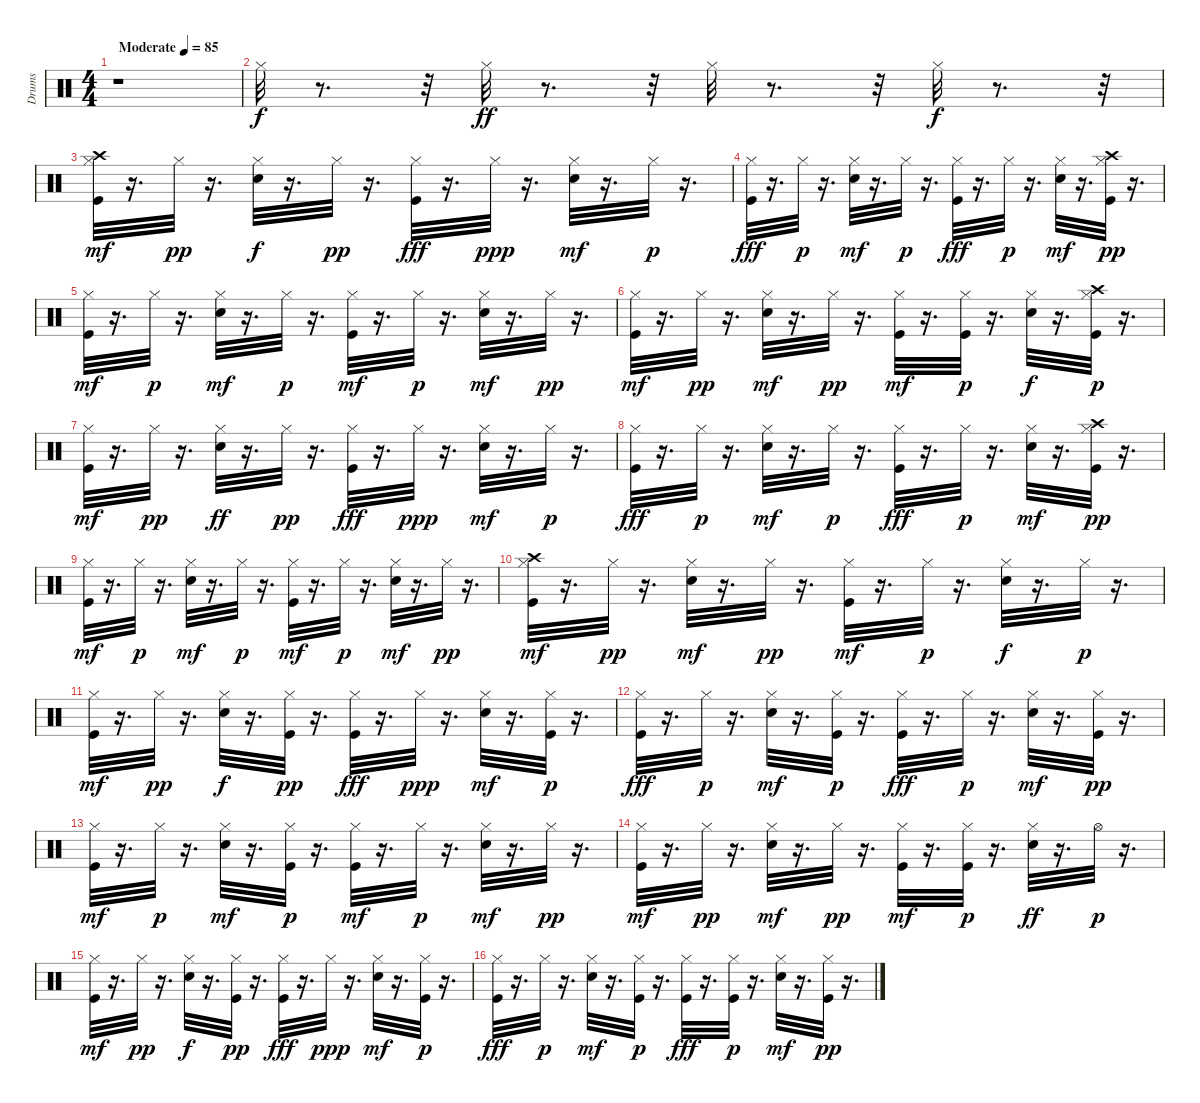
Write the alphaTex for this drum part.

\track ("Drums" "Drums") {instrument percussion}
\staff {score}
\articulation defaults
\ts (4 4)
\tempo (85 "Moderate")
\clef neutral
\ks c
r.1{dy f} |
"Hi-Hat (closed)".32 r.8{d} r.32 "Hi-Hat (closed)".32{dy ff} r.8{d} r.32 "Hi-Hat (closed)".32 r.8{d} r.32 "Hi-Hat (closed)".32{dy f} r.8{d} r.32 |
("Kick (hit)" "Crash high (hit)" "Hi-Hat (closed)").32{dy mf} r.16{d} "Hi-Hat (closed)".32{dy pp} r.16{d} ("Electric Snare (hit)" "Hi-Hat (closed)").32{dy f} r.16{d} "Hi-Hat (closed)".32{dy pp} r.16{d} ("Kick (hit)" "Hi-Hat (closed)").32{dy fff} r.16{d} "Hi-Hat (closed)".32{dy ppp} r.16{d} ("Electric Snare (hit)" "Hi-Hat (closed)").32{dy mf} r.16{d} "Hi-Hat (closed)".32{dy p} r.16{d} |
("Kick (hit)" "Hi-Hat (closed)").32{dy fff} r.16{d} "Hi-Hat (closed)".32{dy p} r.16{d} ("Electric Snare (hit)" "Hi-Hat (closed)").32{dy mf} r.16{d} "Hi-Hat (closed)".32{dy p} r.16{d} ("Kick (hit)" "Hi-Hat (closed)").32{dy fff} r.16{d} "Hi-Hat (closed)".32{dy p} r.16{d} ("Electric Snare (hit)" "Hi-Hat (closed)").32{dy mf} r.16{d} ("Kick (hit)" "Crash high (hit)" "Hi-Hat (closed)").32{dy pp} r.16{d} |
("Kick (hit)" "Hi-Hat (closed)").32{dy mf} r.16{d} "Hi-Hat (closed)".32{dy p} r.16{d} ("Electric Snare (hit)" "Hi-Hat (closed)").32{dy mf} r.16{d} "Hi-Hat (closed)".32{dy p} r.16{d} ("Kick (hit)" "Hi-Hat (closed)").32{dy mf} r.16{d} "Hi-Hat (closed)".32{dy p} r.16{d} ("Electric Snare (hit)" "Hi-Hat (closed)").32{dy mf} r.16{d} "Hi-Hat (closed)".32{dy pp} r.16{d} |
("Kick (hit)" "Hi-Hat (closed)").32{dy mf} r.16{d} "Hi-Hat (closed)".32{dy pp} r.16{d} ("Electric Snare (hit)" "Hi-Hat (closed)").32{dy mf} r.16{d} "Hi-Hat (closed)".32{dy pp} r.16{d} ("Kick (hit)" "Hi-Hat (closed)").32{dy mf} r.16{d} ("Kick (hit)" "Hi-Hat (closed)").32{dy p} r.16{d} ("Electric Snare (hit)" "Hi-Hat (closed)").32{dy f} r.16{d} ("Kick (hit)" "Crash high (hit)" "Hi-Hat (closed)").32{dy p} r.16{d} |
("Kick (hit)" "Hi-Hat (closed)").32{dy mf} r.16{d} "Hi-Hat (closed)".32{dy pp} r.16{d} ("Electric Snare (hit)" "Hi-Hat (closed)").32{dy ff} r.16{d} "Hi-Hat (closed)".32{dy pp} r.16{d} ("Kick (hit)" "Hi-Hat (closed)").32{dy fff} r.16{d} "Hi-Hat (closed)".32{dy ppp} r.16{d} ("Electric Snare (hit)" "Hi-Hat (closed)").32{dy mf} r.16{d} "Hi-Hat (closed)".32{dy p} r.16{d} |
("Kick (hit)" "Hi-Hat (closed)").32{dy fff} r.16{d} "Hi-Hat (closed)".32{dy p} r.16{d} ("Electric Snare (hit)" "Hi-Hat (closed)").32{dy mf} r.16{d} "Hi-Hat (closed)".32{dy p} r.16{d} ("Kick (hit)" "Hi-Hat (closed)").32{dy fff} r.16{d} "Hi-Hat (closed)".32{dy p} r.16{d} ("Electric Snare (hit)" "Hi-Hat (closed)").32{dy mf} r.16{d} ("Kick (hit)" "Crash high (hit)" "Hi-Hat (closed)").32{dy pp} r.16{d} |
("Kick (hit)" "Hi-Hat (closed)").32{dy mf} r.16{d} "Hi-Hat (closed)".32{dy p} r.16{d} ("Electric Snare (hit)" "Hi-Hat (closed)").32{dy mf} r.16{d} "Hi-Hat (closed)".32{dy p} r.16{d} ("Kick (hit)" "Hi-Hat (closed)").32{dy mf} r.16{d} "Hi-Hat (closed)".32{dy p} r.16{d} ("Electric Snare (hit)" "Hi-Hat (closed)").32{dy mf} r.16{d} "Hi-Hat (closed)".32{dy pp} r.16{d} |
("Kick (hit)" "Crash high (hit)" "Hi-Hat (closed)").32{dy mf} r.16{d} "Hi-Hat (closed)".32{dy pp} r.16{d} ("Electric Snare (hit)" "Hi-Hat (closed)").32{dy mf} r.16{d} "Hi-Hat (closed)".32{dy pp} r.16{d} ("Kick (hit)" "Hi-Hat (closed)").32{dy mf} r.16{d} "Hi-Hat (closed)".32{dy p} r.16{d} ("Electric Snare (hit)" "Hi-Hat (closed)").32{dy f} r.16{d} "Hi-Hat (closed)".32{dy p} r.16{d} |
("Kick (hit)" "Hi-Hat (closed)").32{dy mf} r.16{d} "Hi-Hat (closed)".32{dy pp} r.16{d} ("Electric Snare (hit)" "Hi-Hat (closed)").32{dy f} r.16{d} ("Kick (hit)" "Hi-Hat (closed)").32{dy pp} r.16{d} ("Kick (hit)" "Hi-Hat (closed)").32{dy fff} r.16{d} "Hi-Hat (closed)".32{dy ppp} r.16{d} ("Electric Snare (hit)" "Hi-Hat (closed)").32{dy mf} r.16{d} ("Kick (hit)" "Hi-Hat (closed)").32{dy p} r.16{d} |
("Kick (hit)" "Hi-Hat (closed)").32{dy fff} r.16{d} "Hi-Hat (closed)".32{dy p} r.16{d} ("Electric Snare (hit)" "Hi-Hat (closed)").32{dy mf} r.16{d} ("Kick (hit)" "Hi-Hat (closed)").32{dy p} r.16{d} ("Kick (hit)" "Hi-Hat (closed)").32{dy fff} r.16{d} "Hi-Hat (closed)".32{dy p} r.16{d} ("Electric Snare (hit)" "Hi-Hat (closed)").32{dy mf} r.16{d} ("Kick (hit)" "Hi-Hat (closed)").32{dy pp} r.16{d} |
("Kick (hit)" "Hi-Hat (closed)").32{dy mf} r.16{d} "Hi-Hat (closed)".32{dy p} r.16{d} ("Electric Snare (hit)" "Hi-Hat (closed)").32{dy mf} r.16{d} ("Kick (hit)" "Hi-Hat (closed)").32{dy p} r.16{d} ("Kick (hit)" "Hi-Hat (closed)").32{dy mf} r.16{d} "Hi-Hat (closed)".32{dy p} r.16{d} ("Electric Snare (hit)" "Hi-Hat (closed)").32{dy mf} r.16{d} "Hi-Hat (closed)".32{dy pp} r.16{d} |
("Kick (hit)" "Hi-Hat (closed)").32{dy mf} r.16{d} "Hi-Hat (closed)".32{dy pp} r.16{d} ("Electric Snare (hit)" "Hi-Hat (closed)").32{dy mf} r.16{d} "Hi-Hat (closed)".32{dy pp} r.16{d} ("Kick (hit)" "Hi-Hat (closed)").32{dy mf} r.16{d} ("Kick (hit)" "Hi-Hat (closed)").32{dy p} r.16{d} ("Electric Snare (hit)" "Hi-Hat (closed)").32{dy ff} r.16{d} "Hi-Hat (open)".32{dy p} r.16{d} |
("Kick (hit)" "Hi-Hat (closed)").32{dy mf} r.16{d} "Hi-Hat (closed)".32{dy pp} r.16{d} ("Electric Snare (hit)" "Hi-Hat (closed)").32{dy f} r.16{d} ("Kick (hit)" "Hi-Hat (closed)").32{dy pp} r.16{d} ("Kick (hit)" "Hi-Hat (closed)").32{dy fff} r.16{d} "Hi-Hat (closed)".32{dy ppp} r.16{d} ("Electric Snare (hit)" "Hi-Hat (closed)").32{dy mf} r.16{d} ("Kick (hit)" "Hi-Hat (closed)").32{dy p} r.16{d} |
("Kick (hit)" "Hi-Hat (closed)").32{dy fff} r.16{d} "Hi-Hat (closed)".32{dy p} r.16{d} ("Electric Snare (hit)" "Hi-Hat (closed)").32{dy mf} r.16{d} ("Kick (hit)" "Hi-Hat (closed)").32{dy p} r.16{d} ("Kick (hit)" "Hi-Hat (closed)").32{dy fff} r.16{d} ("Kick (hit)" "Hi-Hat (closed)").32{dy p} r.16{d} ("Electric Snare (hit)" "Hi-Hat (closed)").32{dy mf} r.16{d} ("Kick (hit)" "Hi-Hat (closed)").32{dy pp} r.16{d}
